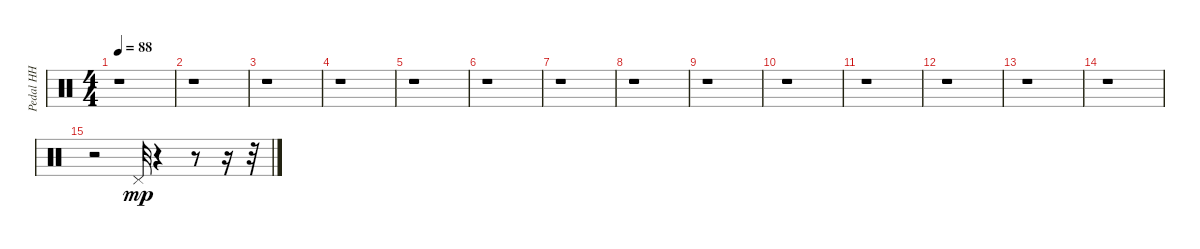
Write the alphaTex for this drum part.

\track ("Pedal HH" "Pedal HH") {instrument percussion}
\staff {score}
\articulation defaults
\ts (4 4)
\tempo 88
\clef neutral
\ks c
r.1{dy f} |
r.1 |
r.1 |
r.1 |
r.1 |
r.1 |
r.1 |
r.1 |
r.1 |
r.1 |
r.1 |
r.1 |
r.1 |
r.1 |
r.2 "Pedal Hi-Hat (hit)".32{dy mp} r.4 r.8 r.16 r.32
